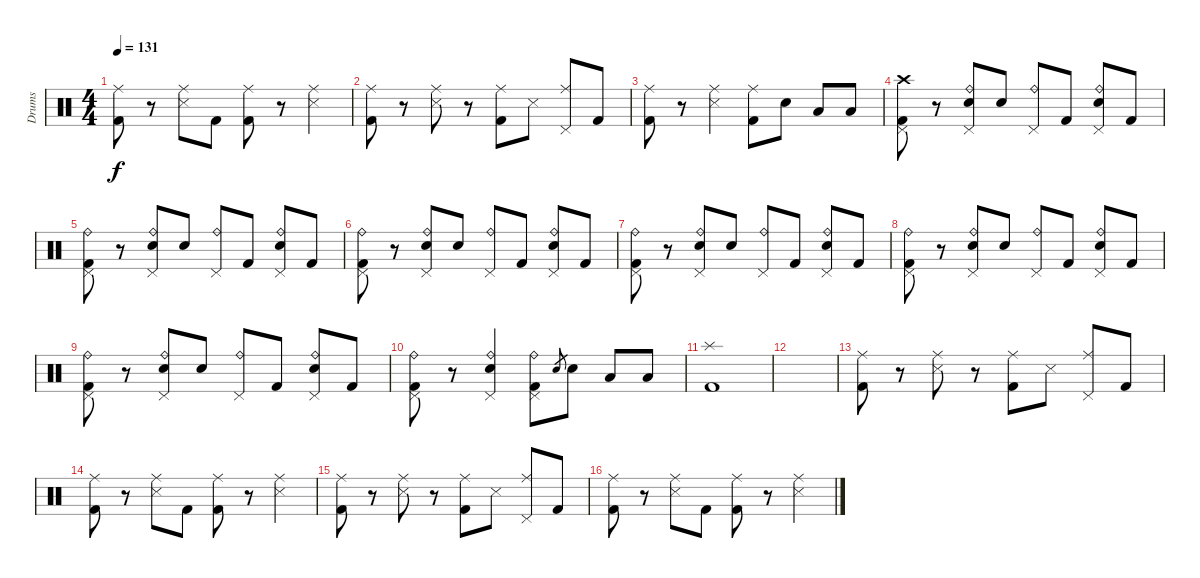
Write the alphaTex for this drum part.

\track ("Drums" "Drums") {instrument percussion}
\staff {score}
\articulation defaults
\ts (4 4)
\tempo 131
\clef neutral
\ks c
("Ride (middle)" "Kick (hit) 2").8{dy f} r.8 ("Ride (middle)" "Snare (side stick) 3").8 "Kick (hit) 2".8 ("Ride (middle)" "Kick (hit) 2").8 r.8 ("Ride (middle)" "Snare (side stick) 3").4 |
("Ride (middle)" "Kick (hit) 2").8 r.8 ("Ride (middle)" "Snare (side stick) 3").8 r.8 ("Ride (middle)" "Kick (hit) 2").8 "Snare (side stick) 3".8 ("Ride (middle)" "Pedal Hi-Hat (hit)").8 "Kick (hit) 2".8 |
("Ride (middle)" "Kick (hit) 2").8 r.8 ("Ride (middle)" "Snare (side stick) 3").4 ("Ride (middle)" "Kick (hit) 2").8 "Snare (hit) 2".8 "Low Tom (hit)".8 "Low Floor Tom (hit)".8 |
("Crash high (hit)" "Pedal Hi-Hat (hit)" "Kick (hit) 2").8 r.8 ("Ride (bell)" "Pedal Hi-Hat (hit)" "Snare (hit) 2").8 "Snare (hit) 2".8 ("Ride (bell)" "Pedal Hi-Hat (hit)").8 "Kick (hit) 2".8 ("Ride (bell)" "Pedal Hi-Hat (hit)" "Snare (hit) 2").8 "Kick (hit) 2".8 |
("Ride (bell)" "Pedal Hi-Hat (hit)" "Kick (hit) 2").8 r.8 ("Ride (bell)" "Pedal Hi-Hat (hit)" "Snare (hit) 2").8 "Snare (hit) 2".8 ("Ride (bell)" "Pedal Hi-Hat (hit)").8 "Kick (hit) 2".8 ("Ride (bell)" "Pedal Hi-Hat (hit)" "Snare (hit) 2").8 "Kick (hit) 2".8 |
("Ride (bell)" "Pedal Hi-Hat (hit)" "Kick (hit) 2").8 r.8 ("Ride (bell)" "Pedal Hi-Hat (hit)" "Snare (hit) 2").8 "Snare (hit) 2".8 ("Ride (bell)" "Pedal Hi-Hat (hit)").8 "Kick (hit) 2".8 ("Ride (bell)" "Pedal Hi-Hat (hit)" "Snare (hit) 2").8 "Kick (hit) 2".8 |
("Ride (bell)" "Pedal Hi-Hat (hit)" "Kick (hit) 2").8 r.8 ("Ride (bell)" "Pedal Hi-Hat (hit)" "Snare (hit) 2").8 "Snare (hit) 2".8 ("Ride (bell)" "Pedal Hi-Hat (hit)").8 "Kick (hit) 2".8 ("Ride (bell)" "Pedal Hi-Hat (hit)" "Snare (hit) 2").8 "Kick (hit) 2".8 |
("Ride (bell)" "Pedal Hi-Hat (hit)" "Kick (hit) 2").8 r.8 ("Ride (bell)" "Pedal Hi-Hat (hit)" "Snare (hit) 2").8 "Snare (hit) 2".8 ("Ride (bell)" "Pedal Hi-Hat (hit)").8 "Kick (hit) 2".8 ("Ride (bell)" "Pedal Hi-Hat (hit)" "Snare (hit) 2").8 "Kick (hit) 2".8 |
("Ride (bell)" "Pedal Hi-Hat (hit)" "Kick (hit) 2").8 r.8 ("Ride (bell)" "Pedal Hi-Hat (hit)" "Snare (hit) 2").8 "Snare (hit) 2".8 ("Ride (bell)" "Pedal Hi-Hat (hit)").8 "Kick (hit) 2".8 ("Ride (bell)" "Pedal Hi-Hat (hit)" "Snare (hit) 2").8 "Kick (hit) 2".8 |
("Ride (bell)" "Pedal Hi-Hat (hit)" "Kick (hit) 2").8 r.8 ("Ride (bell)" "Pedal Hi-Hat (hit)" "Snare (hit) 2").4 ("Ride (bell)" "Pedal Hi-Hat (hit)" "Kick (hit) 2").8 "Snare (hit) 2".8{gr} "Snare (hit) 2".8 "Low Tom (hit)".8 "Low Floor Tom (hit)".8 |
("Splash (hit)" "Kick (hit) 2").1 |
|
("Ride (middle)" "Kick (hit) 2").8 r.8 ("Ride (middle)" "Snare (side stick) 3").8 r.8 ("Ride (middle)" "Kick (hit) 2").8 "Snare (side stick) 3".8 ("Ride (middle)" "Pedal Hi-Hat (hit)").8 "Kick (hit) 2".8 |
("Ride (middle)" "Kick (hit) 2").8 r.8 ("Ride (middle)" "Snare (side stick) 3").8 "Kick (hit) 2".8 ("Ride (middle)" "Kick (hit) 2").8 r.8 ("Ride (middle)" "Snare (side stick) 3").4 |
("Ride (middle)" "Kick (hit) 2").8 r.8 ("Ride (middle)" "Snare (side stick) 3").8 r.8 ("Ride (middle)" "Kick (hit) 2").8 "Snare (side stick) 3".8 ("Ride (middle)" "Pedal Hi-Hat (hit)").8 "Kick (hit) 2".8 |
("Ride (middle)" "Kick (hit) 2").8 r.8 ("Ride (middle)" "Snare (side stick) 3").8 "Kick (hit) 2".8 ("Ride (middle)" "Kick (hit) 2").8 r.8 ("Ride (middle)" "Snare (side stick) 3").4
